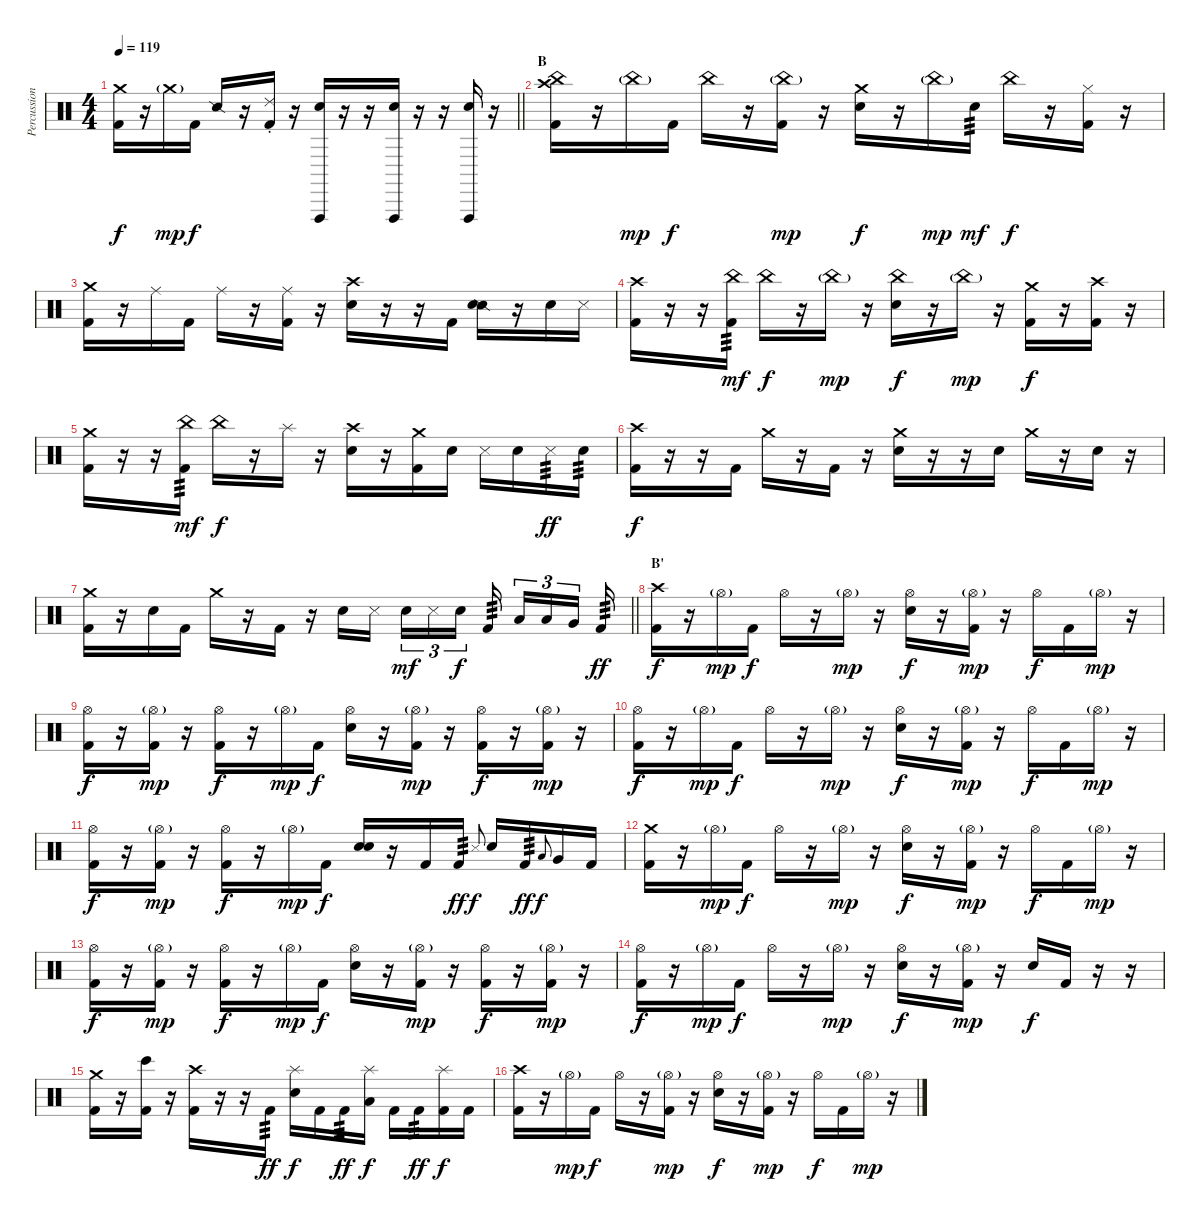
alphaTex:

\track ("Percussion" "Percussion") {instrument percussion}
\staff {score}
\articulation defaults
\ts (4 4)
\tempo 119
\clef neutral
\barLineRight lightlight
\ks c
("Crash medium (hit)" "Kick (hit) 2").16{dy f} r.16 "Crash medium (hit)"{g}.16{dy mp} "Kick (hit) 2".16{dy f} "Snare (side stick) 2".16 r.16 ("Ride (choke) 2" "Kick (hit) 2").16 r.16 ("Vibraslap (hit)" "Snare (hit) 2").16 r.16 r.16 ("Vibraslap (hit)" "Snare (hit) 2").16 r.16 r.16 ("Vibraslap (hit)" "Snare (hit) 2").16 r.16 |
\section ("" "B")
("Crash high (hit)" "China (hit)" "Kick (hit) 2").16 r.16 "China (hit)"{g}.16{dy mp} "Kick (hit) 2".16{dy f} "China (hit)".16 r.16 ("China (hit)"{g} "Kick (hit) 2").16{dy mp} r.16 ("Crash medium (hit)" "Snare (hit) 2").16{dy f} r.16 "China (hit)"{g}.16{dy mp} "Snare (hit) 2".16{tp 3 dy mf} "China (hit)".16{dy f} r.16 ("Hi-Hat (closed)" "Kick (hit) 2").16 r.16 |
("Crash medium (hit)" "Kick (hit) 2").16 r.16 "Ride (middle)".16 "Kick (hit) 2".16 "Ride (middle)".16 r.16 ("Ride (middle)" "Kick (hit) 2").16 r.16 ("Crash high (hit)" "Snare (hit) 2").16 r.16 r.16 "Kick (hit) 2".16 ("Snare (side stick) 2" "Snare (hit) 2").16 r.16 "Snare (hit) 2".16 "Metronome (hit)".16 |
("Crash high (hit)" "Kick (hit) 2").16 r.16 r.16 ("China (hit)" "Kick (hit) 2").16{tp 3 dy mf} "China (hit)".16{dy f} r.16 "China (hit)"{g}.16{dy mp} r.16 ("China (hit)" "Snare (hit) 2").16{dy f} r.16 "China (hit)"{g}.16{dy mp} r.16 ("Crash medium (hit)" "Kick (hit) 2").16{dy f} r.16 ("Crash high (hit)" "Kick (hit) 2").16 r.16 |
("Crash medium (hit)" "Kick (hit) 2").16 r.16 r.16 ("China (hit)" "Kick (hit) 2").16{tp 3 dy mf} "China (hit)".16{dy f} r.16 "Splash (hit)".16 r.16 ("Crash high (hit)" "Snare (hit) 2").16 r.16 ("Crash medium (hit)" "Kick (hit) 2").16 "Snare (hit) 2".16 "Metronome (hit)".16 "Snare (hit) 2".16 "Metronome (hit)".16{tp 3 dy ff} "Snare (hit) 2".16{tp 3} |
("Crash high (hit)" "Kick (hit) 2").16{dy f} r.16 r.16 "Kick (hit) 2".16 "Crash medium (hit)".16 r.16 "Kick (hit) 2".16 r.16 ("Crash medium (hit)" "Snare (hit) 2").16 r.16 r.16 "Snare (hit) 2".16 "Crash medium (hit)".16 r.16 "Snare (hit) 2".16 r.16 |
\barLineRight lightlight
("Crash medium (hit)" "Kick (hit) 2").16 r.16 "Snare (hit) 2".16 "Kick (hit) 2".16 "Crash medium (hit)".16 r.16 "Kick (hit) 2".16 r.16 "Snare (hit) 2".16 "Metronome (hit)".16{beam splitsecondary} "Snare (hit) 2".16{tu (3 2) dy mf} "Metronome (hit)".16{tu (3 2)} "Snare (hit) 2".16{tu (3 2) dy f} "Kick (hit) 2".16{tp 3 beam splitsecondary} "Low Tom (hit)".16{tu (3 2)} "Low Tom (hit)".16{tu (3 2)} "Very Low Tom (hit)".16{tu (3 2) beam splitsecondary} "Kick (hit) 2".16{tp 3 dy ff} |
\section ("" "B'")
("Crash high (hit)" "Kick (hit) 2").16{dy f} r.16 "Hi-Hat (open)"{g}.16{dy mp} "Kick (hit) 2".16{dy f} "Hi-Hat (open)".16 r.16 "Hi-Hat (open)"{g}.16{dy mp} r.16 ("Hi-Hat (open)" "Snare (hit) 2").16{dy f} r.16 ("Hi-Hat (open)"{g} "Kick (hit) 2").16{dy mp} r.16 "Hi-Hat (open)".16{dy f} "Kick (hit) 2".16 "Hi-Hat (open)"{g}.16{dy mp} r.16 |
("Hi-Hat (open)" "Kick (hit) 2").16{dy f} r.16 ("Hi-Hat (open)"{g} "Kick (hit) 2").16{dy mp} r.16 ("Hi-Hat (open)" "Kick (hit) 2").16{dy f} r.16 "Hi-Hat (open)"{g}.16{dy mp} "Kick (hit) 2".16{dy f} ("Hi-Hat (open)" "Snare (hit) 2").16 r.16 ("Hi-Hat (open)"{g} "Kick (hit) 2").16{dy mp} r.16 ("Hi-Hat (open)" "Kick (hit) 2").16{dy f} r.16 ("Hi-Hat (open)"{g} "Kick (hit) 2").16{dy mp} r.16 |
("Hi-Hat (open)" "Kick (hit) 2").16{dy f} r.16 "Hi-Hat (open)"{g}.16{dy mp} "Kick (hit) 2".16{dy f} "Hi-Hat (open)".16 r.16 "Hi-Hat (open)"{g}.16{dy mp} r.16 ("Hi-Hat (open)" "Snare (hit) 2").16{dy f} r.16 ("Hi-Hat (open)"{g} "Kick (hit) 2").16{dy mp} r.16 "Hi-Hat (open)".16{dy f} "Kick (hit) 2".16 "Hi-Hat (open)"{g}.16{dy mp} r.16 |
("Hi-Hat (open)" "Kick (hit) 2").16{dy f} r.16 ("Hi-Hat (open)"{g} "Kick (hit) 2").16{dy mp} r.16 ("Hi-Hat (open)" "Kick (hit) 2").16{dy f} r.16 "Hi-Hat (open)"{g}.16{dy mp} "Kick (hit) 2".16{dy f} ("Snare (hit)" "Snare (hit) 2").16 r.16 "Kick (hit) 2".16 "Kick (hit) 2".16{tp 3 dy ff} "Metronome (hit)".8{gr onbeat dy f} "Snare (hit) 2".16 "Kick (hit) 2".16{tp 3 dy ff} "Low Tom (hit)".8{gr onbeat dy f} "Very Low Tom (hit)".16 "Kick (hit) 2".16 |
("Crash medium (hit)" "Kick (hit) 2").16 r.16 "Hi-Hat (open)"{g}.16{dy mp} "Kick (hit) 2".16{dy f} "Hi-Hat (open)".16 r.16 "Hi-Hat (open)"{g}.16{dy mp} r.16 ("Hi-Hat (open)" "Snare (hit) 2").16{dy f} r.16 ("Hi-Hat (open)"{g} "Kick (hit) 2").16{dy mp} r.16 "Hi-Hat (open)".16{dy f} "Kick (hit) 2".16 "Hi-Hat (open)"{g}.16{dy mp} r.16 |
("Hi-Hat (open)" "Kick (hit) 2").16{dy f} r.16 ("Hi-Hat (open)"{g} "Kick (hit) 2").16{dy mp} r.16 ("Hi-Hat (open)" "Kick (hit) 2").16{dy f} r.16 "Hi-Hat (open)"{g}.16{dy mp} "Kick (hit) 2".16{dy f} ("Hi-Hat (open)" "Snare (hit) 2").16 r.16 ("Hi-Hat (open)"{g} "Kick (hit) 2").16{dy mp} r.16 ("Hi-Hat (open)" "Kick (hit) 2").16{dy f} r.16 ("Hi-Hat (open)"{g} "Kick (hit) 2").16{dy mp} r.16 |
("Hi-Hat (open)" "Kick (hit) 2").16{dy f} r.16 "Hi-Hat (open)"{g}.16{dy mp} "Kick (hit) 2".16{dy f} "Hi-Hat (open)".16 r.16 "Hi-Hat (open)"{g}.16{dy mp} r.16 ("Hi-Hat (open)" "Snare (hit) 2").16{dy f} r.16 ("Hi-Hat (open)"{g} "Kick (hit) 2").16{dy mp} r.16 "Snare (hit)".16{dy f} "Kick (hit) 2".16 r.16 r.16 |
("Crash medium (hit)" "Kick (hit) 2").16 r.16 ("Bongo High (hit)" "Kick (hit) 2").16 r.16 ("Crash high (hit)" "Kick (hit) 2").16 r.16 r.16 "Kick (hit) 2".16{tp 3 dy ff} ("Splash (hit)" "Snare (hit) 2").16{dy f} "Kick (hit) 2".16 "Kick (hit) 2".16{tp 3 dy ff} ("Splash (hit)" "Low Tom (hit)").16{dy f} "Kick (hit) 2".16 "Kick (hit) 2".16{tp 3 dy ff} ("Splash (hit)" "Kick (hit) 2").16{dy f} "Kick (hit) 2".16 |
("Crash high (hit)" "Kick (hit) 2").16 r.16 "Hi-Hat (open)"{g}.16{dy mp} "Kick (hit) 2".16{dy f} "Hi-Hat (open)".16 r.16 ("Hi-Hat (open)"{g} "Kick (hit) 2").16{dy mp} r.16 ("Hi-Hat (open)" "Snare (hit) 2").16{dy f} r.16 ("Hi-Hat (open)"{g} "Kick (hit) 2").16{dy mp} r.16 "Hi-Hat (open)".16{dy f} "Kick (hit) 2".16 "Hi-Hat (open)"{g}.16{dy mp} r.16
